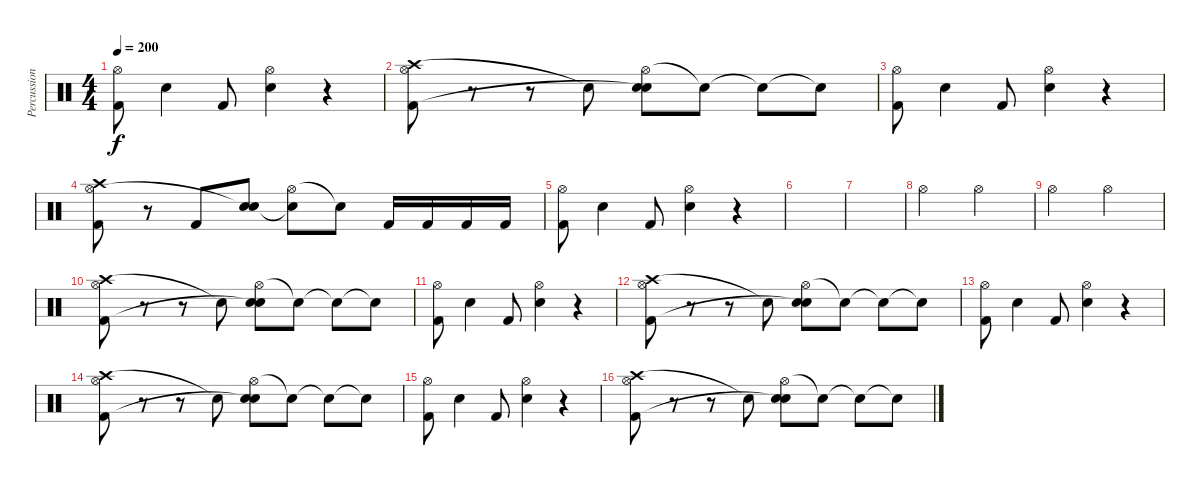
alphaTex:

\track ("Percussion" "Percussion") {instrument percussion}
\staff {score}
\articulation defaults
\ts (4 4)
\tempo 200
\clef neutral
\ks c
("Hi-Hat (open)" "Kick (hit) 2").8{dy f} "Electric Snare (hit)".4 "Kick (hit) 2".8 ("Hi-Hat (open)" "Electric Snare (hit)").4 r.4 |
("Crash high (hit)" "Hi-Hat (open)" "Kick (hit) 2").8 r.8 r.8 "Electric Snare (hit)"{t}.8 ("Hi-Hat (open)" "Electric Snare (hit)" "Snare (hit)"{t}).8 "Snare (hit)"{t}.8 "Snare (hit)"{t}.8 "Snare (hit)"{t}.8 |
("Hi-Hat (open)" "Kick (hit) 2").8 "Electric Snare (hit)".4 "Kick (hit) 2".8 ("Hi-Hat (open)" "Electric Snare (hit)").4 r.4 |
("Crash high (hit)" "Hi-Hat (open)" "Kick (hit) 2").8 r.8 "Kick (hit) 2".8 ("Electric Snare (hit)" "Electric Snare (hit)"{t}).8 ("Hi-Hat (open)" "Snare (hit)"{t}).8 "Snare (hit)"{t}.8 "Kick (hit) 2".16 "Kick (hit) 2".16 "Kick (hit) 2".16 "Kick (hit) 2".16 |
("Hi-Hat (open)" "Kick (hit) 2").8 "Electric Snare (hit)".4 "Kick (hit) 2".8 ("Hi-Hat (open)" "Electric Snare (hit)").4 r.4 |
|
|
"Hi-Hat (open)".2 "Hi-Hat (open)".2 |
"Hi-Hat (open)".2 "Hi-Hat (open)".2 |
("Crash high (hit)" "Hi-Hat (open)" "Kick (hit) 2").8 r.8 r.8 "Electric Snare (hit)"{t}.8 ("Hi-Hat (open)" "Electric Snare (hit)" "Snare (hit)"{t}).8 "Snare (hit)"{t}.8 "Snare (hit)"{t}.8 "Snare (hit)"{t}.8 |
("Hi-Hat (open)" "Kick (hit) 2").8 "Electric Snare (hit)".4 "Kick (hit) 2".8 ("Hi-Hat (open)" "Electric Snare (hit)").4 r.4 |
("Crash high (hit)" "Hi-Hat (open)" "Kick (hit) 2").8 r.8 r.8 "Electric Snare (hit)"{t}.8 ("Hi-Hat (open)" "Electric Snare (hit)" "Snare (hit)"{t}).8 "Snare (hit)"{t}.8 "Snare (hit)"{t}.8 "Snare (hit)"{t}.8 |
("Hi-Hat (open)" "Kick (hit) 2").8 "Electric Snare (hit)".4 "Kick (hit) 2".8 ("Hi-Hat (open)" "Electric Snare (hit)").4 r.4 |
("Crash high (hit)" "Hi-Hat (open)" "Kick (hit) 2").8 r.8 r.8 "Electric Snare (hit)"{t}.8 ("Hi-Hat (open)" "Electric Snare (hit)" "Snare (hit)"{t}).8 "Snare (hit)"{t}.8 "Snare (hit)"{t}.8 "Snare (hit)"{t}.8 |
("Hi-Hat (open)" "Kick (hit) 2").8 "Electric Snare (hit)".4 "Kick (hit) 2".8 ("Hi-Hat (open)" "Electric Snare (hit)").4 r.4 |
("Crash high (hit)" "Hi-Hat (open)" "Kick (hit) 2").8 r.8 r.8 "Electric Snare (hit)"{t}.8 ("Hi-Hat (open)" "Electric Snare (hit)" "Snare (hit)"{t}).8 "Snare (hit)"{t}.8 "Snare (hit)"{t}.8 "Snare (hit)"{t}.8
